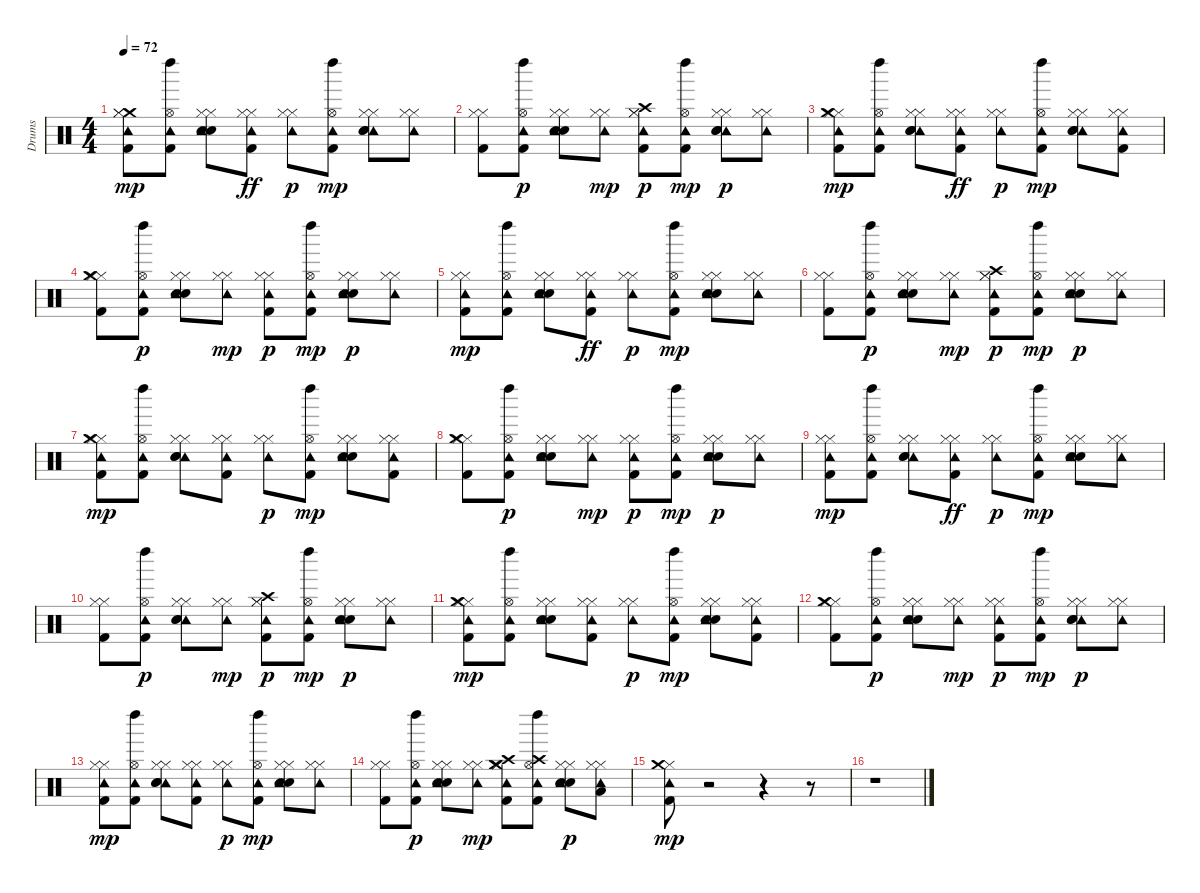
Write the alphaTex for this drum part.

\track ("Drums" "Drums") {instrument percussion}
\staff {score}
\articulation defaults
\ts (4 4)
\tempo 72
\clef neutral
\ks c
("Crash medium (hit)" "Kick (hit) 2" "Hi-Hat (closed)" "Tambourine (hit)" "Hi-Hat (closed)").8{dy mp} ("Kick (hit) 2" "Tambourine (hit)" "Hi-Hat (open)" "Left Maraca (hit)").8 ("Hand Clap (hit)" "Electric Snare (hit)" "Hi-Hat (closed)" "Tambourine (hit)" "Hi-Hat (closed)").8 ("Hi-Hat (closed)" "Tambourine (hit)" "Hi-Hat (closed)" "Kick (hit) 2").8{dy ff} ("Hi-Hat (closed)" "Tambourine (hit)" "Hi-Hat (closed)").8{dy p} ("Tambourine (hit)" "Kick (hit) 2" "Hi-Hat (open)" "Left Maraca (hit)").8{dy mp} ("Hi-Hat (closed)" "Tambourine (hit)" "Hand Clap (hit)" "Electric Snare (hit)" "Hi-Hat (closed)").8 ("Hi-Hat (closed)" "Tambourine (hit)" "Hi-Hat (closed)").8 |
("Hi-Hat (closed)" "Kick (hit) 2" "Hi-Hat (closed)").8 ("Tambourine (hit)" "Hi-Hat (open)" "Kick (hit) 2" "Left Maraca (hit)").8{dy p} ("Hi-Hat (closed)" "Hand Clap (hit)" "Electric Snare (hit)" "Tambourine (hit)" "Hi-Hat (closed)").8 ("Hi-Hat (closed)" "Tambourine (hit)" "Hi-Hat (closed)").8{dy mp} ("Crash high (hit)" "Kick (hit) 2" "Hi-Hat (closed)" "Tambourine (hit)" "Hi-Hat (closed)").8{dy p} ("Tambourine (hit)" "Hi-Hat (open)" "Kick (hit) 2" "Left Maraca (hit)").8{dy mp} ("Tambourine (hit)" "Electric Snare (hit)" "Hi-Hat (closed)" "Hand Clap (hit)" "Hi-Hat (closed)").8{dy p} ("Hi-Hat (closed)" "Tambourine (hit)" "Hi-Hat (closed)").8 |
("Hi-Hat (closed)" "Tambourine (hit)" "Kick (hit) 2" "Crash medium (hit)" "Hi-Hat (closed)").8{dy mp} ("Tambourine (hit)" "Kick (hit) 2" "Hi-Hat (open)" "Left Maraca (hit)").8 ("Hi-Hat (closed)" "Tambourine (hit)" "Electric Snare (hit)" "Hand Clap (hit)" "Hi-Hat (closed)").8 ("Tambourine (hit)" "Hi-Hat (closed)" "Hi-Hat (closed)" "Kick (hit) 2").8{dy ff} ("Tambourine (hit)" "Hi-Hat (closed)" "Hi-Hat (closed)").8{dy p} ("Hi-Hat (open)" "Kick (hit) 2" "Tambourine (hit)" "Left Maraca (hit)").8{dy mp} ("Tambourine (hit)" "Hi-Hat (closed)" "Hand Clap (hit)" "Electric Snare (hit)" "Hi-Hat (closed)").8 ("Tambourine (hit)" "Kick (hit) 2" "Hi-Hat (closed)" "Hi-Hat (closed)").8 |
("Kick (hit) 2" "Hi-Hat (closed)" "Crash medium (hit)" "Hi-Hat (closed)").8 ("Tambourine (hit)" "Kick (hit) 2" "Hi-Hat (open)" "Left Maraca (hit)").8{dy p} ("Hand Clap (hit)" "Tambourine (hit)" "Electric Snare (hit)" "Hi-Hat (closed)" "Hi-Hat (closed)").8 ("Tambourine (hit)" "Hi-Hat (closed)" "Hi-Hat (closed)").8{dy mp} ("Hi-Hat (closed)" "Kick (hit) 2" "Tambourine (hit)" "Hi-Hat (closed)").8{dy p} ("Kick (hit) 2" "Tambourine (hit)" "Hi-Hat (open)" "Left Maraca (hit)").8{dy mp} ("Hand Clap (hit)" "Tambourine (hit)" "Electric Snare (hit)" "Hi-Hat (closed)" "Hi-Hat (closed)").8{dy p} ("Tambourine (hit)" "Hi-Hat (closed)" "Hi-Hat (closed)").8 |
("Hi-Hat (closed)" "Tambourine (hit)" "Kick (hit) 2" "Hi-Hat (closed)").8{dy mp} ("Hi-Hat (open)" "Kick (hit) 2" "Tambourine (hit)" "Left Maraca (hit)").8 ("Electric Snare (hit)" "Hi-Hat (closed)" "Hand Clap (hit)" "Tambourine (hit)" "Hi-Hat (closed)").8 ("Tambourine (hit)" "Hi-Hat (closed)" "Hi-Hat (closed)" "Kick (hit) 2").8{dy ff} ("Tambourine (hit)" "Hi-Hat (closed)" "Hi-Hat (closed)").8{dy p} ("Kick (hit) 2" "Hi-Hat (open)" "Tambourine (hit)" "Left Maraca (hit)").8{dy mp} ("Hand Clap (hit)" "Tambourine (hit)" "Electric Snare (hit)" "Hi-Hat (closed)" "Hi-Hat (closed)").8 ("Hi-Hat (closed)" "Tambourine (hit)" "Hi-Hat (closed)").8 |
("Hi-Hat (closed)" "Kick (hit) 2" "Hi-Hat (closed)").8 ("Kick (hit) 2" "Tambourine (hit)" "Hi-Hat (open)" "Left Maraca (hit)").8{dy p} ("Electric Snare (hit)" "Tambourine (hit)" "Hi-Hat (closed)" "Hand Clap (hit)" "Hi-Hat (closed)").8 ("Tambourine (hit)" "Hi-Hat (closed)" "Hi-Hat (closed)").8{dy mp} ("Tambourine (hit)" "Kick (hit) 2" "Crash high (hit)" "Hi-Hat (closed)" "Hi-Hat (closed)").8{dy p} ("Kick (hit) 2" "Tambourine (hit)" "Hi-Hat (open)" "Left Maraca (hit)").8{dy mp} ("Hand Clap (hit)" "Tambourine (hit)" "Electric Snare (hit)" "Hi-Hat (closed)" "Hi-Hat (closed)").8{dy p} ("Tambourine (hit)" "Hi-Hat (closed)" "Hi-Hat (closed)").8 |
("Hi-Hat (closed)" "Tambourine (hit)" "Kick (hit) 2" "Crash medium (hit)" "Hi-Hat (closed)").8{dy mp} ("Hi-Hat (open)" "Kick (hit) 2" "Tambourine (hit)" "Left Maraca (hit)").8 ("Hi-Hat (closed)" "Tambourine (hit)" "Electric Snare (hit)" "Hand Clap (hit)" "Hi-Hat (closed)").8 ("Tambourine (hit)" "Hi-Hat (closed)" "Kick (hit) 2" "Hi-Hat (closed)").8 ("Tambourine (hit)" "Hi-Hat (closed)" "Hi-Hat (closed)").8{dy p} ("Kick (hit) 2" "Hi-Hat (open)" "Tambourine (hit)" "Left Maraca (hit)").8{dy mp} ("Hi-Hat (closed)" "Electric Snare (hit)" "Tambourine (hit)" "Hand Clap (hit)" "Hi-Hat (closed)").8 ("Kick (hit) 2" "Hi-Hat (closed)" "Tambourine (hit)" "Hi-Hat (closed)").8 |
("Hi-Hat (closed)" "Crash medium (hit)" "Kick (hit) 2" "Hi-Hat (closed)").8 ("Tambourine (hit)" "Hi-Hat (open)" "Kick (hit) 2" "Left Maraca (hit)").8{dy p} ("Hand Clap (hit)" "Tambourine (hit)" "Electric Snare (hit)" "Hi-Hat (closed)" "Hi-Hat (closed)").8 ("Tambourine (hit)" "Hi-Hat (closed)" "Hi-Hat (closed)").8{dy mp} ("Tambourine (hit)" "Hi-Hat (closed)" "Kick (hit) 2" "Hi-Hat (closed)").8{dy p} ("Tambourine (hit)" "Hi-Hat (open)" "Kick (hit) 2" "Left Maraca (hit)").8{dy mp} ("Hi-Hat (closed)" "Hand Clap (hit)" "Tambourine (hit)" "Electric Snare (hit)" "Hi-Hat (closed)").8{dy p} ("Tambourine (hit)" "Hi-Hat (closed)" "Hi-Hat (closed)").8 |
("Hi-Hat (closed)" "Kick (hit) 2" "Tambourine (hit)" "Hi-Hat (closed)").8{dy mp} ("Tambourine (hit)" "Hi-Hat (open)" "Kick (hit) 2" "Left Maraca (hit)").8 ("Tambourine (hit)" "Hi-Hat (closed)" "Hand Clap (hit)" "Electric Snare (hit)" "Hi-Hat (closed)").8 ("Hi-Hat (closed)" "Tambourine (hit)" "Hi-Hat (closed)" "Kick (hit) 2").8{dy ff} ("Tambourine (hit)" "Hi-Hat (closed)" "Hi-Hat (closed)").8{dy p} ("Hi-Hat (open)" "Kick (hit) 2" "Tambourine (hit)" "Left Maraca (hit)").8{dy mp} ("Hand Clap (hit)" "Tambourine (hit)" "Hi-Hat (closed)" "Electric Snare (hit)" "Hi-Hat (closed)").8 ("Hi-Hat (closed)" "Tambourine (hit)" "Hi-Hat (closed)").8 |
("Hi-Hat (closed)" "Kick (hit) 2" "Hi-Hat (closed)").8 ("Hi-Hat (open)" "Tambourine (hit)" "Kick (hit) 2" "Left Maraca (hit)").8{dy p} ("Tambourine (hit)" "Hand Clap (hit)" "Electric Snare (hit)" "Hi-Hat (closed)" "Hi-Hat (closed)").8 ("Tambourine (hit)" "Hi-Hat (closed)" "Hi-Hat (closed)").8{dy mp} ("Kick (hit) 2" "Hi-Hat (closed)" "Tambourine (hit)" "Crash high (hit)" "Hi-Hat (closed)").8{dy p} ("Hi-Hat (open)" "Tambourine (hit)" "Kick (hit) 2" "Left Maraca (hit)").8{dy mp} ("Hand Clap (hit)" "Electric Snare (hit)" "Hi-Hat (closed)" "Tambourine (hit)" "Hi-Hat (closed)").8{dy p} ("Hi-Hat (closed)" "Tambourine (hit)" "Hi-Hat (closed)").8 |
("Tambourine (hit)" "Hi-Hat (closed)" "Crash medium (hit)" "Kick (hit) 2" "Hi-Hat (closed)").8{dy mp} ("Hi-Hat (open)" "Kick (hit) 2" "Tambourine (hit)" "Left Maraca (hit)").8 ("Electric Snare (hit)" "Hi-Hat (closed)" "Tambourine (hit)" "Hand Clap (hit)" "Hi-Hat (closed)").8 ("Tambourine (hit)" "Hi-Hat (closed)" "Kick (hit) 2" "Hi-Hat (closed)").8 ("Hi-Hat (closed)" "Tambourine (hit)" "Hi-Hat (closed)").8{dy p} ("Tambourine (hit)" "Hi-Hat (open)" "Kick (hit) 2" "Left Maraca (hit)").8{dy mp} ("Electric Snare (hit)" "Hi-Hat (closed)" "Tambourine (hit)" "Hand Clap (hit)" "Hi-Hat (closed)").8 ("Kick (hit) 2" "Hi-Hat (closed)" "Tambourine (hit)" "Hi-Hat (closed)").8 |
("Hi-Hat (closed)" "Kick (hit) 2" "Crash medium (hit)" "Hi-Hat (closed)").8 ("Hi-Hat (open)" "Tambourine (hit)" "Kick (hit) 2" "Left Maraca (hit)").8{dy p} ("Electric Snare (hit)" "Hi-Hat (closed)" "Hand Clap (hit)" "Tambourine (hit)" "Hi-Hat (closed)").8 ("Hi-Hat (closed)" "Tambourine (hit)" "Hi-Hat (closed)").8{dy mp} ("Hi-Hat (closed)" "Tambourine (hit)" "Kick (hit) 2" "Hi-Hat (closed)").8{dy p} ("Tambourine (hit)" "Hi-Hat (open)" "Kick (hit) 2" "Left Maraca (hit)").8{dy mp} ("Tambourine (hit)" "Hi-Hat (closed)" "Hand Clap (hit)" "Electric Snare (hit)" "Hi-Hat (closed)").8{dy p} ("Tambourine (hit)" "Hi-Hat (closed)" "Hi-Hat (closed)").8 |
("Tambourine (hit)" "Kick (hit) 2" "Hi-Hat (closed)" "Hi-Hat (closed)").8{dy mp} ("Kick (hit) 2" "Hi-Hat (open)" "Tambourine (hit)" "Left Maraca (hit)").8 ("Tambourine (hit)" "Electric Snare (hit)" "Hand Clap (hit)" "Hi-Hat (closed)" "Hi-Hat (closed)").8 ("Hi-Hat (closed)" "Tambourine (hit)" "Kick (hit) 2" "Hi-Hat (closed)").8 ("Tambourine (hit)" "Hi-Hat (closed)" "Hi-Hat (closed)").8{dy p} ("Tambourine (hit)" "Kick (hit) 2" "Hi-Hat (open)" "Left Maraca (hit)").8{dy mp} ("Electric Snare (hit)" "Tambourine (hit)" "Hand Clap (hit)" "Hi-Hat (closed)" "Hi-Hat (closed)").8 ("Hi-Hat (closed)" "Tambourine (hit)" "Hi-Hat (closed)").8 |
("Kick (hit) 2" "Hi-Hat (closed)" "Hi-Hat (closed)").8 ("Tambourine (hit)" "Kick (hit) 2" "Hi-Hat (open)" "Left Maraca (hit)").8{dy p} ("Electric Snare (hit)" "Hand Clap (hit)" "Tambourine (hit)" "Hi-Hat (closed)" "Hi-Hat (closed)").8 ("Tambourine (hit)" "Hi-Hat (closed)" "Hi-Hat (closed)").8{dy mp} ("Kick (hit) 2" "Crash high (hit)" "Tambourine (hit)" "Hi-Hat (closed)" "Hi-Hat (closed)" "Crash medium (hit)").8 ("Hi-Hat (open)" "Kick (hit) 2" "Tambourine (hit)" "Crash high (hit)" "Left Maraca (hit)").8 ("Hi-Hat (closed)" "Electric Snare (hit)" "Tambourine (hit)" "Hand Clap (hit)" "Hi-Hat (closed)").8{dy p} ("Hi-Hat (closed)" "Low Tom (hit)" "Tambourine (hit)" "Hi-Hat (closed)").8 |
("Tambourine (hit)" "Hi-Hat (closed)" "Kick (hit) 2" "Crash medium (hit)").8{dy mp} r.2 r.4 r.8 |
r.1
